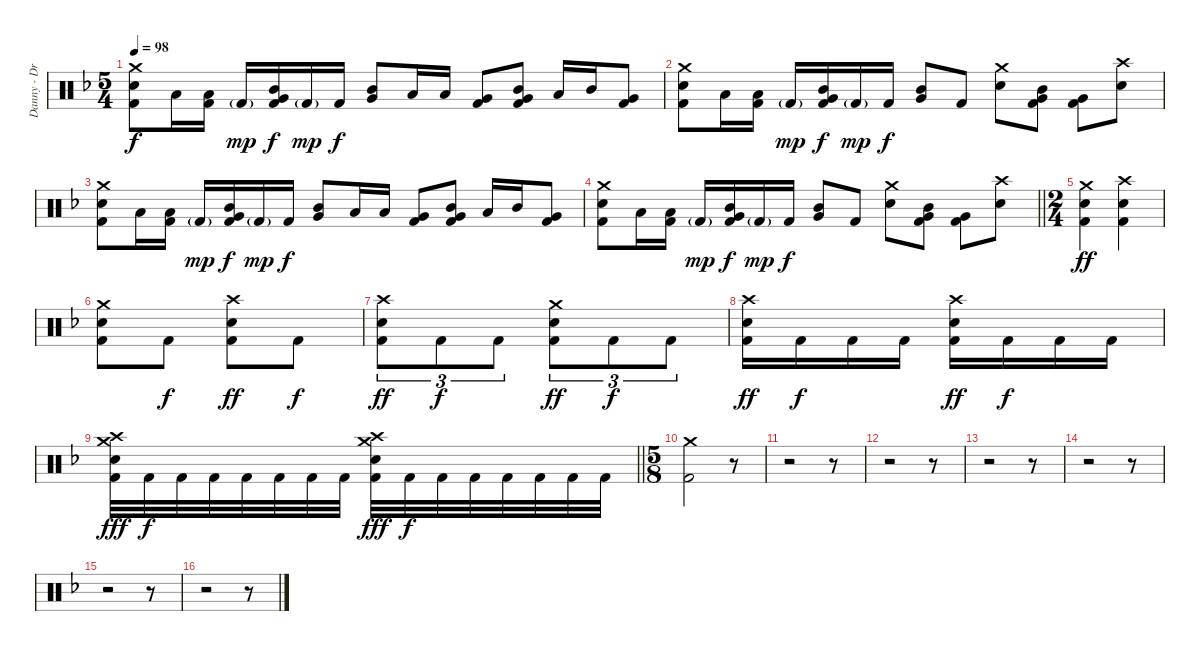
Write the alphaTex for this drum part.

\track ("Danny - Drums" "Danny - Dr") {instrument percussion}
\staff {score}
\articulation defaults
\ts (5 4)
\tempo 98
\clef neutral
\ks dminor
("Crash medium (hit)" "Electric Snare (hit)" "Kick (hit) 2").8{dy f} "Low Tom (hit)".16 ("Low Tom (hit)" "Kick (hit) 2").16 "Kick (hit) 2"{g}.16{dy mp} ("Mid Tom (hit)" "Very Low Tom (hit)" "Kick (hit) 2").16{dy f} "Kick (hit) 2"{g}.16{dy mp} "Kick (hit) 2".16{dy f} ("Mid Tom (hit)" "Very Low Tom (hit)").8 "Low Tom (hit)".16 "Low Tom (hit)".16 ("Very Low Tom (hit)" "Kick (hit) 2").8 ("Mid Tom (hit)" "Very Low Tom (hit)" "Kick (hit) 2").8 "Low Tom (hit)".16 "Mid Tom (hit)".16 ("Very Low Tom (hit)" "Kick (hit) 2").8 |
("Crash medium (hit)" "Electric Snare (hit)" "Kick (hit) 2").8 "Low Tom (hit)".16 ("Low Tom (hit)" "Kick (hit) 2").16 "Kick (hit) 2"{g}.16{dy mp} ("Mid Tom (hit)" "Very Low Tom (hit)" "Kick (hit) 2").16{dy f} "Kick (hit) 2"{g}.16{dy mp} "Kick (hit) 2".16{dy f} ("Mid Tom (hit)" "Very Low Tom (hit)").8 "Kick (hit) 2".8 ("Crash medium (hit)" "Electric Snare (hit)").8 ("Mid Tom (hit)" "Very Low Tom (hit)" "Kick (hit) 2").8{beam split} ("Very Low Tom (hit)" "Kick (hit) 2").8 ("Crash high (hit)" "Electric Snare (hit)").8 |
("Crash medium (hit)" "Electric Snare (hit)" "Kick (hit) 2").8 "Low Tom (hit)".16 ("Low Tom (hit)" "Kick (hit) 2").16 "Kick (hit) 2"{g}.16{dy mp} ("Mid Tom (hit)" "Very Low Tom (hit)" "Kick (hit) 2").16{dy f} "Kick (hit) 2"{g}.16{dy mp} "Kick (hit) 2".16{dy f} ("Mid Tom (hit)" "Very Low Tom (hit)").8 "Low Tom (hit)".16 "Low Tom (hit)".16 ("Very Low Tom (hit)" "Kick (hit) 2").8 ("Mid Tom (hit)" "Very Low Tom (hit)" "Kick (hit) 2").8 "Low Tom (hit)".16 "Mid Tom (hit)".16 ("Very Low Tom (hit)" "Kick (hit) 2").8 |
\barLineRight lightlight
("Crash medium (hit)" "Electric Snare (hit)" "Kick (hit) 2").8 "Low Tom (hit)".16 ("Low Tom (hit)" "Kick (hit) 2").16 "Kick (hit) 2"{g}.16{dy mp} ("Mid Tom (hit)" "Very Low Tom (hit)" "Kick (hit) 2").16{dy f} "Kick (hit) 2"{g}.16{dy mp} "Kick (hit) 2".16{dy f} ("Mid Tom (hit)" "Very Low Tom (hit)").8 "Kick (hit) 2".8 ("Crash medium (hit)" "Electric Snare (hit)").8 ("Mid Tom (hit)" "Very Low Tom (hit)" "Kick (hit) 2").8{beam split} ("Very Low Tom (hit)" "Kick (hit) 2").8 ("Crash high (hit)" "Electric Snare (hit)").8 |
\ts (2 4)
("Crash medium (hit)" "Electric Snare (hit)" "Kick (hit) 2").4{dy ff volume 13} ("Crash high (hit)" "Electric Snare (hit)" "Kick (hit) 2").4 |
("Crash medium (hit)" "Electric Snare (hit)" "Kick (hit) 2").8 "Kick (hit) 2".8{dy f} ("Crash high (hit)" "Electric Snare (hit)" "Kick (hit) 2").8{dy ff} "Kick (hit) 2".8{dy f} |
("Crash high (hit)" "Electric Snare (hit)" "Kick (hit) 2").8{tu (3 2) dy ff} "Kick (hit) 2".8{tu (3 2) dy f} "Kick (hit) 2".8{tu (3 2)} ("Crash medium (hit)" "Electric Snare (hit)" "Kick (hit) 2").8{tu (3 2) dy ff} "Kick (hit) 2".8{tu (3 2) dy f} "Kick (hit) 2".8{tu (3 2)} |
("Crash high (hit)" "Electric Snare (hit)" "Kick (hit) 2").16{dy ff} "Kick (hit) 2".16{dy f} "Kick (hit) 2".16 "Kick (hit) 2".16 ("Crash high (hit)" "Electric Snare (hit)" "Kick (hit) 2").16{dy ff} "Kick (hit) 2".16{dy f} "Kick (hit) 2".16 "Kick (hit) 2".16 |
\barLineRight lightlight
("Crash medium (hit)" "Crash high (hit)" "Electric Snare (hit)" "Kick (hit) 2").32{dy fff} "Kick (hit) 2".32{dy f} "Kick (hit) 2".32 "Kick (hit) 2".32 "Kick (hit) 2".32 "Kick (hit) 2".32 "Kick (hit) 2".32 "Kick (hit) 2".32 ("Crash medium (hit)" "Crash high (hit)" "Electric Snare (hit)" "Kick (hit) 2").32{dy fff} "Kick (hit) 2".32{dy f} "Kick (hit) 2".32 "Kick (hit) 2".32 "Kick (hit) 2".32 "Kick (hit) 2".32 "Kick (hit) 2".32 "Kick (hit) 2".32 |
\ts (5 8)
("Crash medium (hit)" "Kick (hit) 2").2{volume 13} r.8 |
r.2 r.8 |
r.2 r.8 |
r.2 r.8 |
r.2 r.8 |
r.2 r.8 |
r.2 r.8
